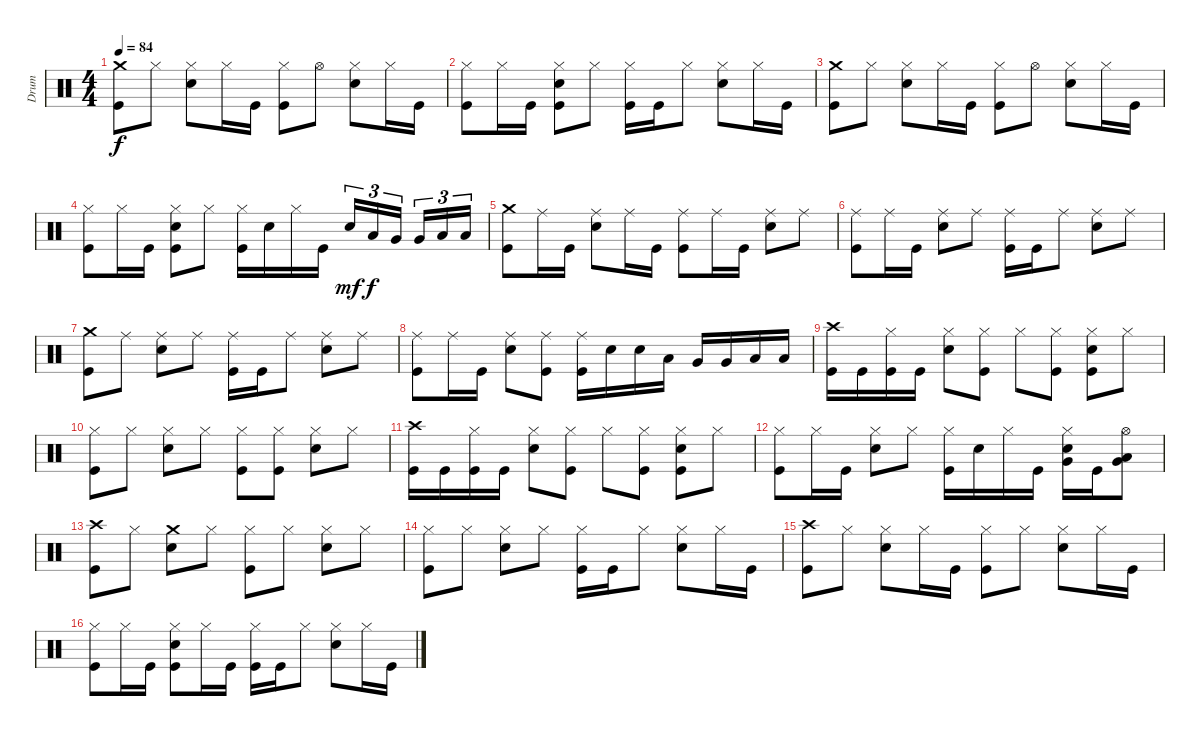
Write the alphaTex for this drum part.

\track ("Drum" "Drum") {instrument percussion}
\staff {score}
\articulation defaults
\ts (4 4)
\tempo 84
\clef neutral
\ks c
("Crash medium (hit)" "Kick (hit)").8{dy f} "Hi-Hat (closed)".8 ("Hi-Hat (closed)" "Electric Snare (hit)").8 "Hi-Hat (closed)".16 "Kick (hit)".16 ("Hi-Hat (closed)" "Kick (hit)").8 "Hi-Hat (open)".8 ("Hi-Hat (closed)" "Electric Snare (hit)").8 "Hi-Hat (closed)".16 "Kick (hit)".16 |
("Hi-Hat (closed)" "Kick (hit)").8 "Hi-Hat (closed)".16 "Kick (hit)".16 ("Hi-Hat (closed)" "Electric Snare (hit)" "Kick (hit)").8 "Hi-Hat (closed)".8 ("Hi-Hat (closed)" "Kick (hit)").16 "Kick (hit)".16 "Hi-Hat (closed)".8 ("Hi-Hat (closed)" "Electric Snare (hit)").8 "Hi-Hat (closed)".16 "Kick (hit)".16 |
("Crash medium (hit)" "Kick (hit)").8 "Hi-Hat (closed)".8 ("Hi-Hat (closed)" "Electric Snare (hit)").8 "Hi-Hat (closed)".16 "Kick (hit)".16 ("Hi-Hat (closed)" "Kick (hit)").8 "Hi-Hat (open)".8 ("Hi-Hat (closed)" "Electric Snare (hit)").8 "Hi-Hat (closed)".16 "Kick (hit)".16 |
("Hi-Hat (closed)" "Kick (hit)").8 "Hi-Hat (closed)".16 "Kick (hit)".16 ("Hi-Hat (closed)" "Electric Snare (hit)" "Kick (hit)").8 "Hi-Hat (closed)".8 ("Hi-Hat (closed)" "Kick (hit)").16 "Electric Snare (hit)".16 "Hi-Hat (closed)".16 "Kick (hit)".16 "Electric Snare (hit)".16{tu (3 2) dy mf} "Low Tom (hit)".16{tu (3 2) dy f} "Very Low Tom (hit)".16{tu (3 2)} "Very Low Tom (hit)".16{tu (3 2)} "Low Floor Tom (hit)".16{tu (3 2)} "Low Floor Tom (hit)".16{tu (3 2)} |
("Crash medium (hit)" "Kick (hit)").8 "Ride (middle)".16 "Kick (hit)".16 ("Ride (middle)" "Electric Snare (hit)").8 "Ride (middle)".16 "Kick (hit)".16 ("Ride (middle)" "Kick (hit)").8 "Ride (middle)".16 "Kick (hit)".16 ("Ride (middle)" "Electric Snare (hit)").8 "Ride (middle)".8 |
("Ride (middle)" "Kick (hit)").8 "Ride (middle)".16 "Kick (hit)".16 ("Ride (middle)" "Electric Snare (hit)").8 "Ride (middle)".8 ("Ride (middle)" "Kick (hit)").16 "Kick (hit)".16 "Ride (middle)".8 ("Ride (middle)" "Electric Snare (hit)").8 "Ride (middle)".8 |
("Crash medium (hit)" "Kick (hit)").8 "Ride (middle)".8 ("Ride (middle)" "Electric Snare (hit)").8 "Ride (middle)".8 ("Ride (middle)" "Kick (hit)").16 "Kick (hit)".16 "Ride (middle)".8 ("Ride (middle)" "Electric Snare (hit)").8 "Ride (middle)".8 |
("Ride (middle)" "Kick (hit)").8 "Ride (middle)".16 "Kick (hit)".16 ("Ride (middle)" "Electric Snare (hit)").8 ("Ride (middle)" "Kick (hit)").8 ("Ride (middle)" "Kick (hit)").16 "Electric Snare (hit)".16 "Electric Snare (hit)".16 "Low Tom (hit)".16 "Very Low Tom (hit)".16 "Very Low Tom (hit)".16 "Low Floor Tom (hit)".16 "Low Floor Tom (hit)".16 |
("Crash high (hit)" "Kick (hit)").16 "Kick (hit)".16 ("Hi-Hat (closed)" "Kick (hit)").16 "Kick (hit)".16 ("Hi-Hat (closed)" "Electric Snare (hit)").8 ("Hi-Hat (closed)" "Kick (hit)").8 "Hi-Hat (closed)".8 ("Hi-Hat (closed)" "Kick (hit)").8 ("Hi-Hat (closed)" "Electric Snare (hit)" "Kick (hit)").8 "Hi-Hat (closed)".8 |
("Hi-Hat (closed)" "Kick (hit)").8 "Hi-Hat (closed)".8 ("Hi-Hat (closed)" "Electric Snare (hit)").8 "Hi-Hat (closed)".8 ("Hi-Hat (closed)" "Kick (hit)").8 ("Hi-Hat (closed)" "Kick (hit)").8 ("Hi-Hat (closed)" "Electric Snare (hit)").8 "Hi-Hat (closed)".8 |
("Crash high (hit)" "Kick (hit)").16 "Kick (hit)".16 ("Hi-Hat (closed)" "Kick (hit)").16 "Kick (hit)".16 ("Hi-Hat (closed)" "Electric Snare (hit)").8 ("Hi-Hat (closed)" "Kick (hit)").8 "Hi-Hat (closed)".8 ("Hi-Hat (closed)" "Kick (hit)").8 ("Hi-Hat (closed)" "Electric Snare (hit)" "Kick (hit)").8 "Hi-Hat (closed)".8 |
("Hi-Hat (closed)" "Kick (hit)").8 "Hi-Hat (closed)".16 "Kick (hit)".16 ("Hi-Hat (closed)" "Electric Snare (hit)").8 "Hi-Hat (closed)".8 ("Hi-Hat (closed)" "Kick (hit)").16 "Electric Snare (hit)".16 "Hi-Hat (closed)".16 "Kick (hit)".16 ("Hi-Hat (closed)" "Very Low Tom (hit)" "Electric Snare (hit)").16 "Kick (hit)".16 ("Hi-Hat (open)" "Low Floor Tom (hit)" "Very Low Tom (hit)").8 |
("Crash high (hit)" "Kick (hit)").8 "Hi-Hat (closed)".8 ("Crash medium (hit)" "Electric Snare (hit)").8 "Hi-Hat (closed)".8 ("Hi-Hat (closed)" "Kick (hit)").8 "Hi-Hat (closed)".8 ("Hi-Hat (closed)" "Electric Snare (hit)").8 "Hi-Hat (closed)".8 |
("Hi-Hat (closed)" "Kick (hit)").8 "Hi-Hat (closed)".8 ("Hi-Hat (closed)" "Electric Snare (hit)").8 "Hi-Hat (closed)".8 ("Hi-Hat (closed)" "Kick (hit)").16 "Kick (hit)".16 "Hi-Hat (closed)".8 ("Hi-Hat (closed)" "Electric Snare (hit)").8 "Hi-Hat (closed)".16 "Kick (hit)".16 |
("Crash high (hit)" "Kick (hit)").8 "Hi-Hat (closed)".8 ("Hi-Hat (closed)" "Electric Snare (hit)").8 "Hi-Hat (closed)".16 "Kick (hit)".16 ("Hi-Hat (closed)" "Kick (hit)").8 "Hi-Hat (closed)".8 ("Hi-Hat (closed)" "Electric Snare (hit)").8 "Hi-Hat (closed)".16 "Kick (hit)".16 |
("Hi-Hat (closed)" "Kick (hit)").8 "Hi-Hat (closed)".16 "Kick (hit)".16 ("Hi-Hat (closed)" "Electric Snare (hit)" "Kick (hit)").8 "Hi-Hat (closed)".16 "Kick (hit)".16 ("Hi-Hat (closed)" "Kick (hit)").16 "Kick (hit)".16 "Hi-Hat (closed)".8 ("Hi-Hat (closed)" "Electric Snare (hit)").8 "Hi-Hat (closed)".16 "Kick (hit)".16
